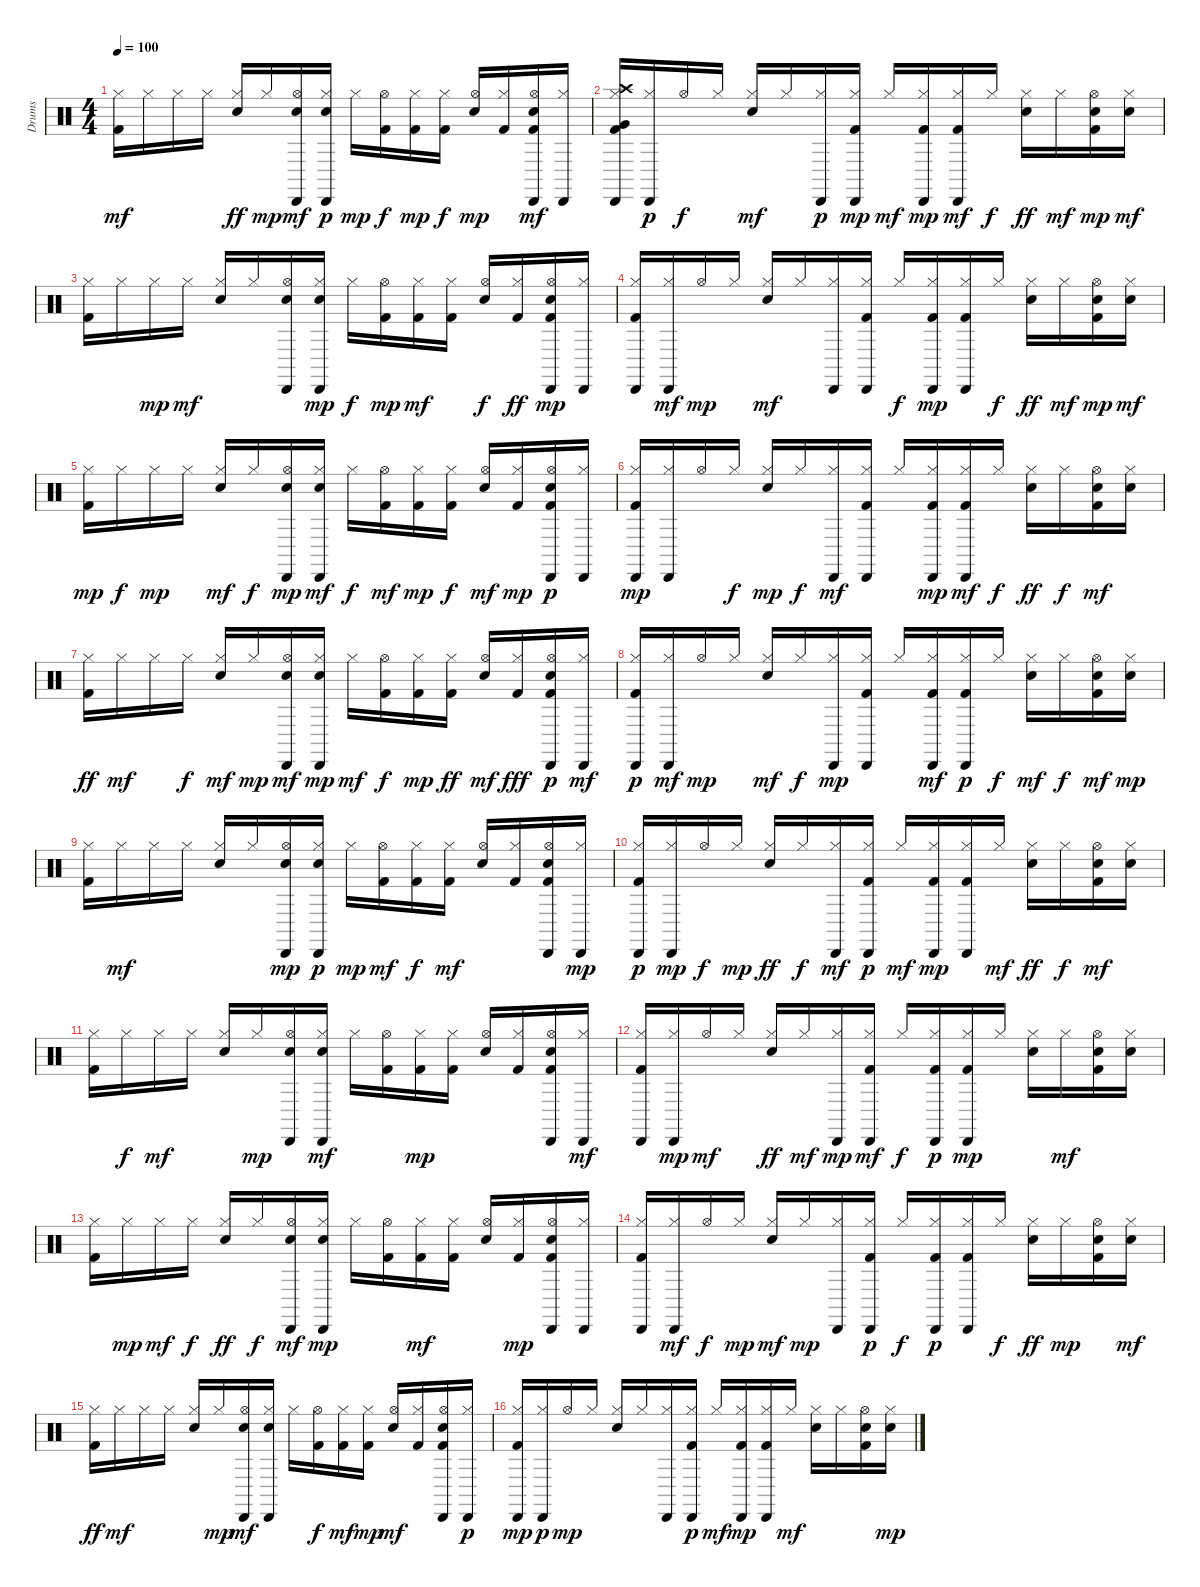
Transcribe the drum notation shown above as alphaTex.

\track ("Drums" "Drums") {instrument percussion}
\staff {score}
\articulation defaults
\ts (4 4)
\tempo 100
\clef neutral
\ks c
("Kick (hit) 2" "Hi-Hat (closed)").16{dy mf} "Hi-Hat (closed)".16 "Hi-Hat (closed)".16 "Hi-Hat (closed)".16 ("Snare (hit) 2" "Hi-Hat (closed)").16{dy ff} "Hi-Hat (closed)".16{dy mp} ("Hand Clap (hit)" "Hi-Hat (open)" "Cabasa (hit)").16{dy mf} ("Hand Clap (hit)" "Hi-Hat (closed)" "Cabasa (hit)").16{dy p} "Hi-Hat (closed)".16{dy mp} ("Kick (hit) 2" "Hi-Hat (open)").16{dy f} ("Kick (hit) 2" "Hi-Hat (closed)").16{dy mp} ("Kick (hit) 2" "Hi-Hat (closed)").16{dy f} ("Snare (hit) 2" "Hi-Hat (open)").16{dy mp} ("Kick (hit) 2" "Hi-Hat (closed)").16 ("Kick (hit) 2" "Hand Clap (hit)" "Hi-Hat (open)" "Cabasa (hit)").16{dy mf} ("Hi-Hat (closed)" "Cabasa (hit)").16 |
("Kick (hit) 2" "Hi-Hat (closed)" "Very Low Tom (hit)" "Crash high (hit)" "Cabasa (hit)").16 ("Hi-Hat (closed)" "Cabasa (hit)").16{dy p} "Hi-Hat (open)".16{dy f} "Hi-Hat (closed)".16 ("Snare (hit) 2" "Hi-Hat (closed)").16{dy mf} "Hi-Hat (closed)".16 ("Hi-Hat (closed)" "Cabasa (hit)").16{dy p} ("Kick (hit) 2" "Hi-Hat (closed)" "Cabasa (hit)").16{dy mp} "Hi-Hat (closed)".16{dy mf} ("Kick (hit) 2" "Hi-Hat (closed)" "Cabasa (hit)").16{dy mp} ("Kick (hit) 2" "Hi-Hat (closed)" "Cabasa (hit)").16{dy mf} "Hi-Hat (closed)".16{dy f} ("Snare (hit) 2" "Hi-Hat (closed)").16{dy ff} "Hi-Hat (closed)".16{dy mf} ("Kick (hit) 2" "Hand Clap (hit)" "Hi-Hat (open)").16{dy mp} ("Hand Clap (hit)" "Hi-Hat (closed)").16{dy mf} |
("Kick (hit) 2" "Hi-Hat (closed)").16 "Hi-Hat (closed)".16 "Hi-Hat (closed)".16{dy mp} "Hi-Hat (closed)".16{dy mf} ("Snare (hit) 2" "Hi-Hat (closed)").16 "Hi-Hat (closed)".16 ("Hand Clap (hit)" "Hi-Hat (open)" "Cabasa (hit)").16 ("Hand Clap (hit)" "Hi-Hat (closed)" "Cabasa (hit)").16{dy mp} "Hi-Hat (closed)".16{dy f} ("Kick (hit) 2" "Hi-Hat (open)").16{dy mp} ("Kick (hit) 2" "Hi-Hat (closed)").16{dy mf} ("Kick (hit) 2" "Hi-Hat (closed)").16 ("Snare (hit) 2" "Hi-Hat (open)").16{dy f} ("Kick (hit) 2" "Hi-Hat (closed)").16{dy ff} ("Kick (hit) 2" "Hand Clap (hit)" "Hi-Hat (open)" "Cabasa (hit)").16{dy mp} ("Hi-Hat (closed)" "Cabasa (hit)").16 |
("Kick (hit) 2" "Hi-Hat (closed)" "Cabasa (hit)").16 ("Hi-Hat (closed)" "Cabasa (hit)").16{dy mf} "Hi-Hat (open)".16{dy mp} "Hi-Hat (closed)".16 ("Snare (hit) 2" "Hi-Hat (closed)").16{dy mf} "Hi-Hat (closed)".16 ("Hi-Hat (closed)" "Cabasa (hit)").16 ("Kick (hit) 2" "Hi-Hat (closed)" "Cabasa (hit)").16 "Hi-Hat (closed)".16{dy f} ("Kick (hit) 2" "Hi-Hat (closed)" "Cabasa (hit)").16{dy mp} ("Kick (hit) 2" "Hi-Hat (closed)" "Cabasa (hit)").16 "Hi-Hat (closed)".16{dy f} ("Snare (hit) 2" "Hi-Hat (closed)").16{dy ff} "Hi-Hat (closed)".16{dy mf} ("Kick (hit) 2" "Hand Clap (hit)" "Hi-Hat (open)").16{dy mp} ("Hand Clap (hit)" "Hi-Hat (closed)").16{dy mf} |
("Kick (hit) 2" "Hi-Hat (closed)").16{dy mp} "Hi-Hat (closed)".16{dy f} "Hi-Hat (closed)".16{dy mp} "Hi-Hat (closed)".16 ("Snare (hit) 2" "Hi-Hat (closed)").16{dy mf} "Hi-Hat (closed)".16{dy f} ("Hand Clap (hit)" "Hi-Hat (open)" "Cabasa (hit)").16{dy mp} ("Hand Clap (hit)" "Hi-Hat (closed)" "Cabasa (hit)").16{dy mf} "Hi-Hat (closed)".16{dy f} ("Kick (hit) 2" "Hi-Hat (open)").16{dy mf} ("Kick (hit) 2" "Hi-Hat (closed)").16{dy mp} ("Kick (hit) 2" "Hi-Hat (closed)").16{dy f} ("Snare (hit) 2" "Hi-Hat (open)").16{dy mf} ("Kick (hit) 2" "Hi-Hat (closed)").16{dy mp} ("Kick (hit) 2" "Hand Clap (hit)" "Hi-Hat (open)" "Cabasa (hit)").16{dy p} ("Hi-Hat (closed)" "Cabasa (hit)").16 |
("Kick (hit) 2" "Hi-Hat (closed)" "Cabasa (hit)").16{dy mp} ("Hi-Hat (closed)" "Cabasa (hit)").16 "Hi-Hat (open)".16 "Hi-Hat (closed)".16{dy f} ("Snare (hit) 2" "Hi-Hat (closed)").16{dy mp} "Hi-Hat (closed)".16{dy f} ("Hi-Hat (closed)" "Cabasa (hit)").16{dy mf} ("Kick (hit) 2" "Hi-Hat (closed)" "Cabasa (hit)").16 "Hi-Hat (closed)".16 ("Kick (hit) 2" "Hi-Hat (closed)" "Cabasa (hit)").16{dy mp} ("Kick (hit) 2" "Hi-Hat (closed)" "Cabasa (hit)").16{dy mf} "Hi-Hat (closed)".16{dy f} ("Snare (hit) 2" "Hi-Hat (closed)").16{dy ff} "Hi-Hat (closed)".16{dy f} ("Kick (hit) 2" "Hand Clap (hit)" "Hi-Hat (open)").16{dy mf} ("Hand Clap (hit)" "Hi-Hat (closed)").16 |
("Kick (hit) 2" "Hi-Hat (closed)").16{dy ff} "Hi-Hat (closed)".16{dy mf} "Hi-Hat (closed)".16 "Hi-Hat (closed)".16{dy f} ("Snare (hit) 2" "Hi-Hat (closed)").16{dy mf} "Hi-Hat (closed)".16{dy mp} ("Hand Clap (hit)" "Hi-Hat (open)" "Cabasa (hit)").16{dy mf} ("Hand Clap (hit)" "Hi-Hat (closed)" "Cabasa (hit)").16{dy mp} "Hi-Hat (closed)".16{dy mf} ("Kick (hit) 2" "Hi-Hat (open)").16{dy f} ("Kick (hit) 2" "Hi-Hat (closed)").16{dy mp} ("Kick (hit) 2" "Hi-Hat (closed)").16{dy ff} ("Snare (hit) 2" "Hi-Hat (open)").16{dy mf} ("Kick (hit) 2" "Hi-Hat (closed)").16{dy fff} ("Kick (hit) 2" "Hand Clap (hit)" "Hi-Hat (open)" "Cabasa (hit)").16{dy p} ("Hi-Hat (closed)" "Cabasa (hit)").16{dy mf} |
("Kick (hit) 2" "Hi-Hat (closed)" "Cabasa (hit)").16{dy p} ("Hi-Hat (closed)" "Cabasa (hit)").16{dy mf} "Hi-Hat (open)".16{dy mp} "Hi-Hat (closed)".16 ("Snare (hit) 2" "Hi-Hat (closed)").16{dy mf} "Hi-Hat (closed)".16{dy f} ("Hi-Hat (closed)" "Cabasa (hit)").16{dy mp} ("Kick (hit) 2" "Hi-Hat (closed)" "Cabasa (hit)").16 "Hi-Hat (closed)".16 ("Kick (hit) 2" "Hi-Hat (closed)" "Cabasa (hit)").16{dy mf} ("Kick (hit) 2" "Hi-Hat (closed)" "Cabasa (hit)").16{dy p} "Hi-Hat (closed)".16{dy f} ("Snare (hit) 2" "Hi-Hat (closed)").16{dy mf} "Hi-Hat (closed)".16{dy f} ("Kick (hit) 2" "Hand Clap (hit)" "Hi-Hat (open)").16{dy mf} ("Hand Clap (hit)" "Hi-Hat (closed)").16{dy mp} |
("Kick (hit) 2" "Hi-Hat (closed)").16 "Hi-Hat (closed)".16{dy mf} "Hi-Hat (closed)".16 "Hi-Hat (closed)".16 ("Snare (hit) 2" "Hi-Hat (closed)").16 "Hi-Hat (closed)".16 ("Hand Clap (hit)" "Hi-Hat (open)" "Cabasa (hit)").16{dy mp} ("Hand Clap (hit)" "Hi-Hat (closed)" "Cabasa (hit)").16{dy p} "Hi-Hat (closed)".16{dy mp} ("Kick (hit) 2" "Hi-Hat (open)").16{dy mf} ("Kick (hit) 2" "Hi-Hat (closed)").16{dy f} ("Kick (hit) 2" "Hi-Hat (closed)").16{dy mf} ("Snare (hit) 2" "Hi-Hat (open)").16 ("Kick (hit) 2" "Hi-Hat (closed)").16 ("Kick (hit) 2" "Hand Clap (hit)" "Hi-Hat (open)" "Cabasa (hit)").16 ("Hi-Hat (closed)" "Cabasa (hit)").16{dy mp} |
("Kick (hit) 2" "Hi-Hat (closed)" "Cabasa (hit)").16{dy p} ("Hi-Hat (closed)" "Cabasa (hit)").16{dy mp} "Hi-Hat (open)".16{dy f} "Hi-Hat (closed)".16{dy mp} ("Snare (hit) 2" "Hi-Hat (closed)").16{dy ff} "Hi-Hat (closed)".16{dy f} ("Hi-Hat (closed)" "Cabasa (hit)").16{dy mf} ("Kick (hit) 2" "Hi-Hat (closed)" "Cabasa (hit)").16{dy p} "Hi-Hat (closed)".16{dy mf} ("Kick (hit) 2" "Hi-Hat (closed)" "Cabasa (hit)").16{dy mp} ("Kick (hit) 2" "Hi-Hat (closed)" "Cabasa (hit)").16 "Hi-Hat (closed)".16{dy mf} ("Snare (hit) 2" "Hi-Hat (closed)").16{dy ff} "Hi-Hat (closed)".16{dy f} ("Kick (hit) 2" "Hand Clap (hit)" "Hi-Hat (open)").16{dy mf} ("Hand Clap (hit)" "Hi-Hat (closed)").16 |
("Kick (hit) 2" "Hi-Hat (closed)").16 "Hi-Hat (closed)".16{dy f} "Hi-Hat (closed)".16{dy mf} "Hi-Hat (closed)".16 ("Snare (hit) 2" "Hi-Hat (closed)").16 "Hi-Hat (closed)".16{dy mp} ("Hand Clap (hit)" "Hi-Hat (open)" "Cabasa (hit)").16 ("Hand Clap (hit)" "Hi-Hat (closed)" "Cabasa (hit)").16{dy mf} "Hi-Hat (closed)".16 ("Kick (hit) 2" "Hi-Hat (open)").16 ("Kick (hit) 2" "Hi-Hat (closed)").16{dy mp} ("Kick (hit) 2" "Hi-Hat (closed)").16 ("Snare (hit) 2" "Hi-Hat (open)").16 ("Kick (hit) 2" "Hi-Hat (closed)").16 ("Kick (hit) 2" "Hand Clap (hit)" "Hi-Hat (open)" "Cabasa (hit)").16 ("Hi-Hat (closed)" "Cabasa (hit)").16{dy mf} |
("Kick (hit) 2" "Hi-Hat (closed)" "Cabasa (hit)").16 ("Hi-Hat (closed)" "Cabasa (hit)").16{dy mp} "Hi-Hat (open)".16{dy mf} "Hi-Hat (closed)".16 ("Snare (hit) 2" "Hi-Hat (closed)").16{dy ff} "Hi-Hat (closed)".16{dy mf} ("Hi-Hat (closed)" "Cabasa (hit)").16{dy mp} ("Kick (hit) 2" "Hi-Hat (closed)" "Cabasa (hit)").16{dy mf} "Hi-Hat (closed)".16{dy f} ("Kick (hit) 2" "Hi-Hat (closed)" "Cabasa (hit)").16{dy p} ("Kick (hit) 2" "Hi-Hat (closed)" "Cabasa (hit)").16{dy mp} "Hi-Hat (closed)".16 ("Snare (hit) 2" "Hi-Hat (closed)").16 "Hi-Hat (closed)".16{dy mf} ("Kick (hit) 2" "Hand Clap (hit)" "Hi-Hat (open)").16 ("Hand Clap (hit)" "Hi-Hat (closed)").16 |
("Kick (hit) 2" "Hi-Hat (closed)").16 "Hi-Hat (closed)".16{dy mp} "Hi-Hat (closed)".16{dy mf} "Hi-Hat (closed)".16{dy f} ("Snare (hit) 2" "Hi-Hat (closed)").16{dy ff} "Hi-Hat (closed)".16{dy f} ("Hand Clap (hit)" "Hi-Hat (open)" "Cabasa (hit)").16{dy mf} ("Hand Clap (hit)" "Hi-Hat (closed)" "Cabasa (hit)").16{dy mp} "Hi-Hat (closed)".16 ("Kick (hit) 2" "Hi-Hat (open)").16 ("Kick (hit) 2" "Hi-Hat (closed)").16{dy mf} ("Kick (hit) 2" "Hi-Hat (closed)").16 ("Snare (hit) 2" "Hi-Hat (open)").16 ("Kick (hit) 2" "Hi-Hat (closed)").16{dy mp} ("Kick (hit) 2" "Hand Clap (hit)" "Hi-Hat (open)" "Cabasa (hit)").16 ("Hi-Hat (closed)" "Cabasa (hit)").16 |
("Kick (hit) 2" "Hi-Hat (closed)" "Cabasa (hit)").16 ("Hi-Hat (closed)" "Cabasa (hit)").16{dy mf} "Hi-Hat (open)".16{dy f} "Hi-Hat (closed)".16{dy mp} ("Snare (hit) 2" "Hi-Hat (closed)").16{dy mf} "Hi-Hat (closed)".16{dy mp} ("Hi-Hat (closed)" "Cabasa (hit)").16 ("Kick (hit) 2" "Hi-Hat (closed)" "Cabasa (hit)").16{dy p} "Hi-Hat (closed)".16{dy f} ("Kick (hit) 2" "Hi-Hat (closed)" "Cabasa (hit)").16{dy p} ("Kick (hit) 2" "Hi-Hat (closed)" "Cabasa (hit)").16 "Hi-Hat (closed)".16{dy f} ("Snare (hit) 2" "Hi-Hat (closed)").16{dy ff} "Hi-Hat (closed)".16{dy mp} ("Kick (hit) 2" "Hand Clap (hit)" "Hi-Hat (open)").16 ("Hand Clap (hit)" "Hi-Hat (closed)").16{dy mf} |
("Kick (hit) 2" "Hi-Hat (closed)").16{dy ff} "Hi-Hat (closed)".16{dy mf} "Hi-Hat (closed)".16 "Hi-Hat (closed)".16 ("Snare (hit) 2" "Hi-Hat (closed)").16 "Hi-Hat (closed)".16{dy mp} ("Hand Clap (hit)" "Hi-Hat (open)" "Cabasa (hit)").16{dy mf} ("Hand Clap (hit)" "Hi-Hat (closed)" "Cabasa (hit)").16 "Hi-Hat (closed)".16 ("Kick (hit) 2" "Hi-Hat (open)").16{dy f} ("Kick (hit) 2" "Hi-Hat (closed)").16{dy mf} ("Kick (hit) 2" "Hi-Hat (closed)").16{dy mp} ("Snare (hit) 2" "Hi-Hat (open)").16{dy mf} ("Kick (hit) 2" "Hi-Hat (closed)").16 ("Kick (hit) 2" "Hand Clap (hit)" "Hi-Hat (open)" "Cabasa (hit)").16 ("Hi-Hat (closed)" "Cabasa (hit)").16{dy p} |
("Kick (hit) 2" "Hi-Hat (closed)" "Cabasa (hit)").16{dy mp} ("Hi-Hat (closed)" "Cabasa (hit)").16{dy p} "Hi-Hat (open)".16{dy mp} "Hi-Hat (closed)".16 ("Snare (hit) 2" "Hi-Hat (closed)").16 "Hi-Hat (closed)".16 ("Hi-Hat (closed)" "Cabasa (hit)").16 ("Kick (hit) 2" "Hi-Hat (closed)" "Cabasa (hit)").16{dy p} "Hi-Hat (closed)".16{dy mf} ("Kick (hit) 2" "Hi-Hat (closed)" "Cabasa (hit)").16{dy mp} ("Kick (hit) 2" "Hi-Hat (closed)" "Cabasa (hit)").16 "Hi-Hat (closed)".16{dy mf} ("Snare (hit) 2" "Hi-Hat (closed)").16 "Hi-Hat (closed)".16 ("Kick (hit) 2" "Hand Clap (hit)" "Hi-Hat (open)").16 ("Hand Clap (hit)" "Hi-Hat (closed)").16{dy mp}
